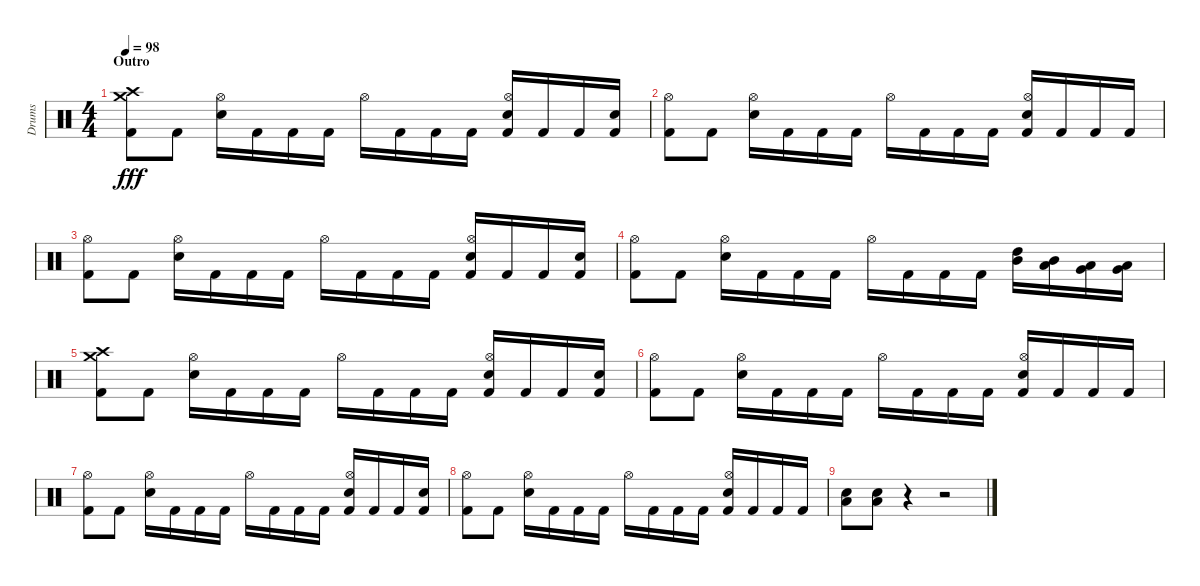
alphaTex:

\track ("Drums" "Drums") {instrument percussion}
\staff {score}
\articulation defaults
\ts (4 4)
\section ("" "Outro")
\tempo 98
\clef neutral
\ks c
("Crash high (hit)" "Crash medium (hit)" "Kick (hit) 2").8{dy fff} "Kick (hit) 2".8 ("Hi-Hat (open)" "Electric Snare (hit)").16 "Kick (hit) 2".16 "Kick (hit) 2".16 "Kick (hit) 2".16 "Hi-Hat (open)".16 "Kick (hit) 2".16 "Kick (hit) 2".16 "Kick (hit) 2".16 ("Hi-Hat (open)" "Electric Snare (hit)" "Kick (hit) 2").16 "Kick (hit) 2".16 "Kick (hit) 2".16 ("Electric Snare (hit)" "Kick (hit) 2").16 |
("Hi-Hat (open)" "Kick (hit) 2").8 "Kick (hit) 2".8 ("Hi-Hat (open)" "Electric Snare (hit)").16 "Kick (hit) 2".16 "Kick (hit) 2".16 "Kick (hit) 2".16 "Hi-Hat (open)".16 "Kick (hit) 2".16 "Kick (hit) 2".16 "Kick (hit) 2".16 ("Hi-Hat (open)" "Electric Snare (hit)" "Kick (hit) 2").16 "Kick (hit) 2".16 "Kick (hit) 2".16 "Kick (hit) 2".16 |
("Hi-Hat (open)" "Kick (hit) 2").8 "Kick (hit) 2".8 ("Hi-Hat (open)" "Electric Snare (hit)").16 "Kick (hit) 2".16 "Kick (hit) 2".16 "Kick (hit) 2".16 "Hi-Hat (open)".16 "Kick (hit) 2".16 "Kick (hit) 2".16 "Kick (hit) 2".16 ("Hi-Hat (open)" "Electric Snare (hit)" "Kick (hit) 2").16 "Kick (hit) 2".16 "Kick (hit) 2".16 ("Electric Snare (hit)" "Kick (hit) 2").16 |
("Hi-Hat (open)" "Kick (hit) 2").8 "Kick (hit) 2".8 ("Hi-Hat (open)" "Electric Snare (hit)").16 "Kick (hit) 2".16 "Kick (hit) 2".16 "Kick (hit) 2".16 "Hi-Hat (open)".16 "Kick (hit) 2".16 "Kick (hit) 2".16 "Kick (hit) 2".16 ("High Tom (hit)" "Mid Tom (hit)").16 ("Mid Tom (hit)" "Low Tom (hit)").16 ("Low Tom (hit)" "Very Low Tom (hit)").16 ("Very Low Tom (hit)" "Low Floor Tom (hit)").16 |
("Crash high (hit)" "Crash medium (hit)" "Kick (hit) 2").8 "Kick (hit) 2".8 ("Hi-Hat (open)" "Electric Snare (hit)").16 "Kick (hit) 2".16 "Kick (hit) 2".16 "Kick (hit) 2".16 "Hi-Hat (open)".16 "Kick (hit) 2".16 "Kick (hit) 2".16 "Kick (hit) 2".16 ("Hi-Hat (open)" "Electric Snare (hit)" "Kick (hit) 2").16 "Kick (hit) 2".16 "Kick (hit) 2".16 ("Electric Snare (hit)" "Kick (hit) 2").16 |
("Hi-Hat (open)" "Kick (hit) 2").8 "Kick (hit) 2".8 ("Hi-Hat (open)" "Electric Snare (hit)").16 "Kick (hit) 2".16 "Kick (hit) 2".16 "Kick (hit) 2".16 "Hi-Hat (open)".16 "Kick (hit) 2".16 "Kick (hit) 2".16 "Kick (hit) 2".16 ("Hi-Hat (open)" "Electric Snare (hit)" "Kick (hit) 2").16 "Kick (hit) 2".16 "Kick (hit) 2".16 "Kick (hit) 2".16 |
("Hi-Hat (open)" "Kick (hit) 2").8 "Kick (hit) 2".8 ("Hi-Hat (open)" "Electric Snare (hit)").16 "Kick (hit) 2".16 "Kick (hit) 2".16 "Kick (hit) 2".16 "Hi-Hat (open)".16 "Kick (hit) 2".16 "Kick (hit) 2".16 "Kick (hit) 2".16 ("Hi-Hat (open)" "Electric Snare (hit)" "Kick (hit) 2").16 "Kick (hit) 2".16 "Kick (hit) 2".16 ("Electric Snare (hit)" "Kick (hit) 2").16 |
("Hi-Hat (open)" "Kick (hit) 2").8 "Kick (hit) 2".8 ("Hi-Hat (open)" "Electric Snare (hit)").16 "Kick (hit) 2".16 "Kick (hit) 2".16 "Kick (hit) 2".16 "Hi-Hat (open)".16 "Kick (hit) 2".16 "Kick (hit) 2".16 "Kick (hit) 2".16 ("Hi-Hat (open)" "Electric Snare (hit)" "Kick (hit) 2").16 "Kick (hit) 2".16 "Kick (hit) 2".16 "Kick (hit) 2".16 |
("Low Tom (hit)" "Electric Snare (hit)").8 ("Low Tom (hit)" "Electric Snare (hit)").8 r.4 r.2
